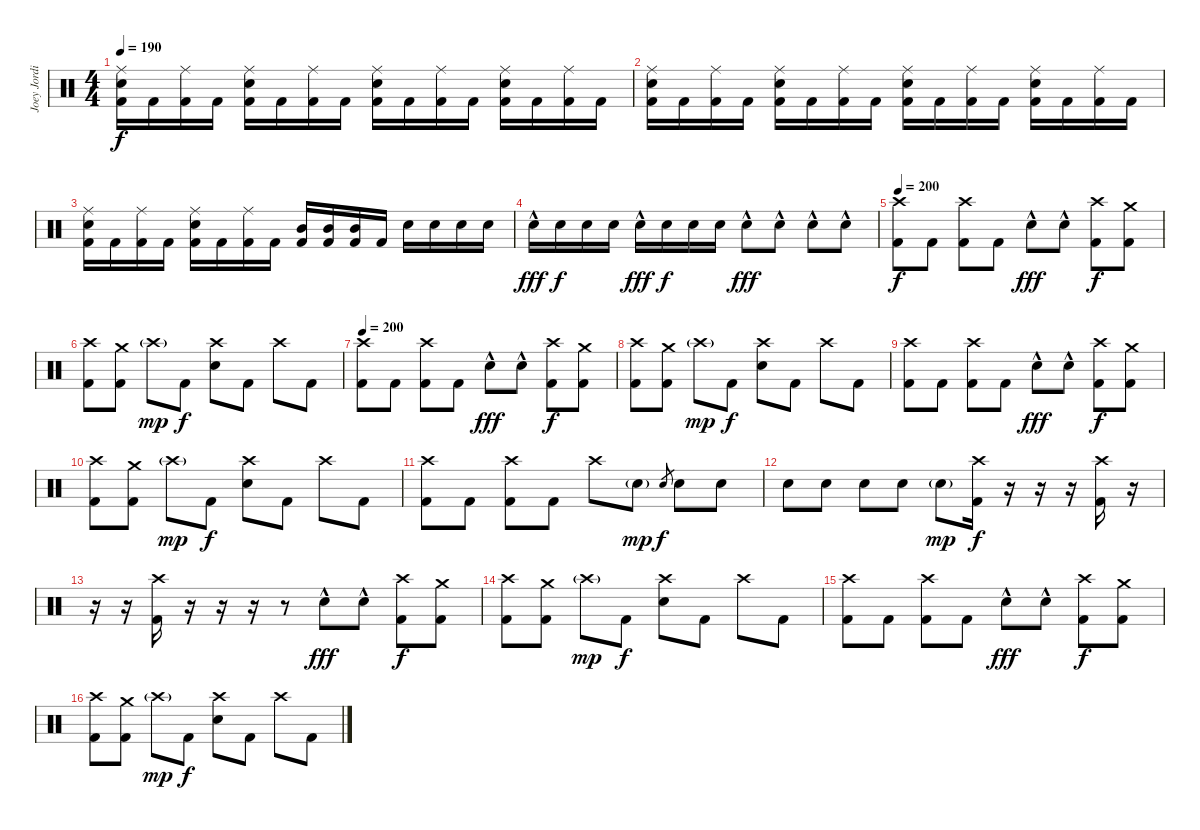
\track ("Joey Jordison" "Joey Jordi") {instrument percussion}
\staff {score}
\articulation defaults
\ts (4 4)
\tempo 190
\clef neutral
\ks c
("Ride (middle)" "Electric Snare (hit)" "Kick (hit) 2").16{dy f} "Kick (hit) 2".16 ("Ride (middle)" "Kick (hit) 2").16 "Kick (hit) 2".16 ("Ride (middle)" "Electric Snare (hit)" "Kick (hit) 2").16 "Kick (hit) 2".16 ("Ride (middle)" "Kick (hit) 2").16 "Kick (hit) 2".16 ("Ride (middle)" "Electric Snare (hit)" "Kick (hit) 2").16 "Kick (hit) 2".16 ("Ride (middle)" "Kick (hit) 2").16 "Kick (hit) 2".16 ("Ride (middle)" "Electric Snare (hit)" "Kick (hit) 2").16 "Kick (hit) 2".16 ("Ride (middle)" "Kick (hit) 2").16 "Kick (hit) 2".16 |
("Ride (middle)" "Electric Snare (hit)" "Kick (hit) 2").16 "Kick (hit) 2".16 ("Ride (middle)" "Kick (hit) 2").16 "Kick (hit) 2".16 ("Ride (middle)" "Electric Snare (hit)" "Kick (hit) 2").16 "Kick (hit) 2".16 ("Ride (middle)" "Kick (hit) 2").16 "Kick (hit) 2".16 ("Ride (middle)" "Electric Snare (hit)" "Kick (hit) 2").16 "Kick (hit) 2".16 ("Ride (middle)" "Kick (hit) 2").16 "Kick (hit) 2".16 ("Ride (middle)" "Electric Snare (hit)" "Kick (hit) 2").16 "Kick (hit) 2".16 ("Ride (middle)" "Kick (hit) 2").16 "Kick (hit) 2".16 |
("Ride (middle)" "Electric Snare (hit)" "Kick (hit) 2").16 "Kick (hit) 2".16 ("Ride (middle)" "Kick (hit) 2").16 "Kick (hit) 2".16 ("Ride (middle)" "Electric Snare (hit)" "Kick (hit) 2").16 "Kick (hit) 2".16 ("Ride (middle)" "Kick (hit) 2").16 "Kick (hit) 2".16 ("Mid Tom (hit)" "Kick (hit) 2").16 ("Mid Tom (hit)" "Kick (hit) 2").16 ("Mid Tom (hit)" "Kick (hit) 2").16 "Kick (hit) 2".16 "Electric Snare (hit)".16 "Electric Snare (hit)".16 "Electric Snare (hit)".16 "Electric Snare (hit)".16 |
"Electric Snare (hit)"{hac}.16{dy fff} "Electric Snare (hit)".16{dy f} "Electric Snare (hit)".16 "Electric Snare (hit)".16 "Electric Snare (hit)"{hac}.16{dy fff} "Electric Snare (hit)".16{dy f} "Electric Snare (hit)".16 "Electric Snare (hit)".16 "Electric Snare (hit)"{hac}.8{dy fff} "Electric Snare (hit)"{hac}.8 "Electric Snare (hit)"{hac}.8 "Electric Snare (hit)"{hac}.8 |
\tempo 180
\tempo 200
("Crash high (hit)" "Kick (hit) 2").8{dy f} "Kick (hit) 2".8 ("Crash high (hit)" "Kick (hit) 2").8 "Kick (hit) 2".8 "Electric Snare (hit)"{hac}.8{dy fff} "Electric Snare (hit)"{hac}.8 ("Crash high (hit)" "Kick (hit) 2").8{dy f} ("Crash medium (hit)" "Kick (hit) 2").8 |
("Crash high (hit)" "Kick (hit) 2").8 ("Crash medium (hit)" "Kick (hit) 2").8 "Crash high (hit)"{g}.8{dy mp} "Kick (hit) 2".8{dy f} ("Crash high (hit)" "Electric Snare (hit)").8 "Kick (hit) 2".8 "Crash high (hit)".8 "Kick (hit) 2".8 |
\tempo 200
("Crash high (hit)" "Kick (hit) 2").8 "Kick (hit) 2".8 ("Crash high (hit)" "Kick (hit) 2").8 "Kick (hit) 2".8 "Electric Snare (hit)"{hac}.8{dy fff} "Electric Snare (hit)"{hac}.8 ("Crash high (hit)" "Kick (hit) 2").8{dy f} ("Crash medium (hit)" "Kick (hit) 2").8 |
("Crash high (hit)" "Kick (hit) 2").8 ("Crash medium (hit)" "Kick (hit) 2").8 "Crash high (hit)"{g}.8{dy mp} "Kick (hit) 2".8{dy f} ("Crash high (hit)" "Electric Snare (hit)").8 "Kick (hit) 2".8 "Crash high (hit)".8 "Kick (hit) 2".8 |
("Crash high (hit)" "Kick (hit) 2").8 "Kick (hit) 2".8 ("Crash high (hit)" "Kick (hit) 2").8 "Kick (hit) 2".8 "Electric Snare (hit)"{hac}.8{dy fff} "Electric Snare (hit)"{hac}.8 ("Crash high (hit)" "Kick (hit) 2").8{dy f} ("Crash medium (hit)" "Kick (hit) 2").8 |
("Crash high (hit)" "Kick (hit) 2").8 ("Crash medium (hit)" "Kick (hit) 2").8 "Crash high (hit)"{g}.8{dy mp} "Kick (hit) 2".8{dy f} ("Crash high (hit)" "Electric Snare (hit)").8 "Kick (hit) 2".8 "Crash high (hit)".8 "Kick (hit) 2".8 |
("Crash high (hit)" "Kick (hit) 2").8 "Kick (hit) 2".8 ("Crash high (hit)" "Kick (hit) 2").8 "Kick (hit) 2".8 "Crash high (hit)".8 "Electric Snare (hit)"{g}.8{dy mp} "Electric Snare (hit)".8{gr dy f} "Electric Snare (hit)".8 "Electric Snare (hit)".8 |
"Electric Snare (hit)".8 "Electric Snare (hit)".8 "Electric Snare (hit)".8 "Electric Snare (hit)".8 "Electric Snare (hit)"{g}.8{dy mp} ("Crash high (hit)" "Kick (hit) 2").16{dy f volume 11} r.16{volume 0} r.16 r.16 ("Crash high (hit)" "Kick (hit) 2").16{volume 11} r.16{volume 0} |
r.16 r.16 ("Crash high (hit)" "Kick (hit) 2").16{volume 11} r.16{volume 0} r.16 r.16 r.8 "Electric Snare (hit)"{hac}.8{dy fff volume 11} "Electric Snare (hit)"{hac}.8 ("Crash high (hit)" "Kick (hit) 2").8{dy f} ("Crash medium (hit)" "Kick (hit) 2").8 |
("Crash high (hit)" "Kick (hit) 2").8 ("Crash medium (hit)" "Kick (hit) 2").8 "Crash high (hit)"{g}.8{dy mp} "Kick (hit) 2".8{dy f} ("Crash high (hit)" "Electric Snare (hit)").8 "Kick (hit) 2".8 "Crash high (hit)".8 "Kick (hit) 2".8 |
("Crash high (hit)" "Kick (hit) 2").8 "Kick (hit) 2".8 ("Crash high (hit)" "Kick (hit) 2").8 "Kick (hit) 2".8 "Electric Snare (hit)"{hac}.8{dy fff} "Electric Snare (hit)"{hac}.8 ("Crash high (hit)" "Kick (hit) 2").8{dy f} ("Crash medium (hit)" "Kick (hit) 2").8 |
("Crash high (hit)" "Kick (hit) 2").8 ("Crash medium (hit)" "Kick (hit) 2").8 "Crash high (hit)"{g}.8{dy mp} "Kick (hit) 2".8{dy f} ("Crash high (hit)" "Electric Snare (hit)").8 "Kick (hit) 2".8 "Crash high (hit)".8 "Kick (hit) 2".8
